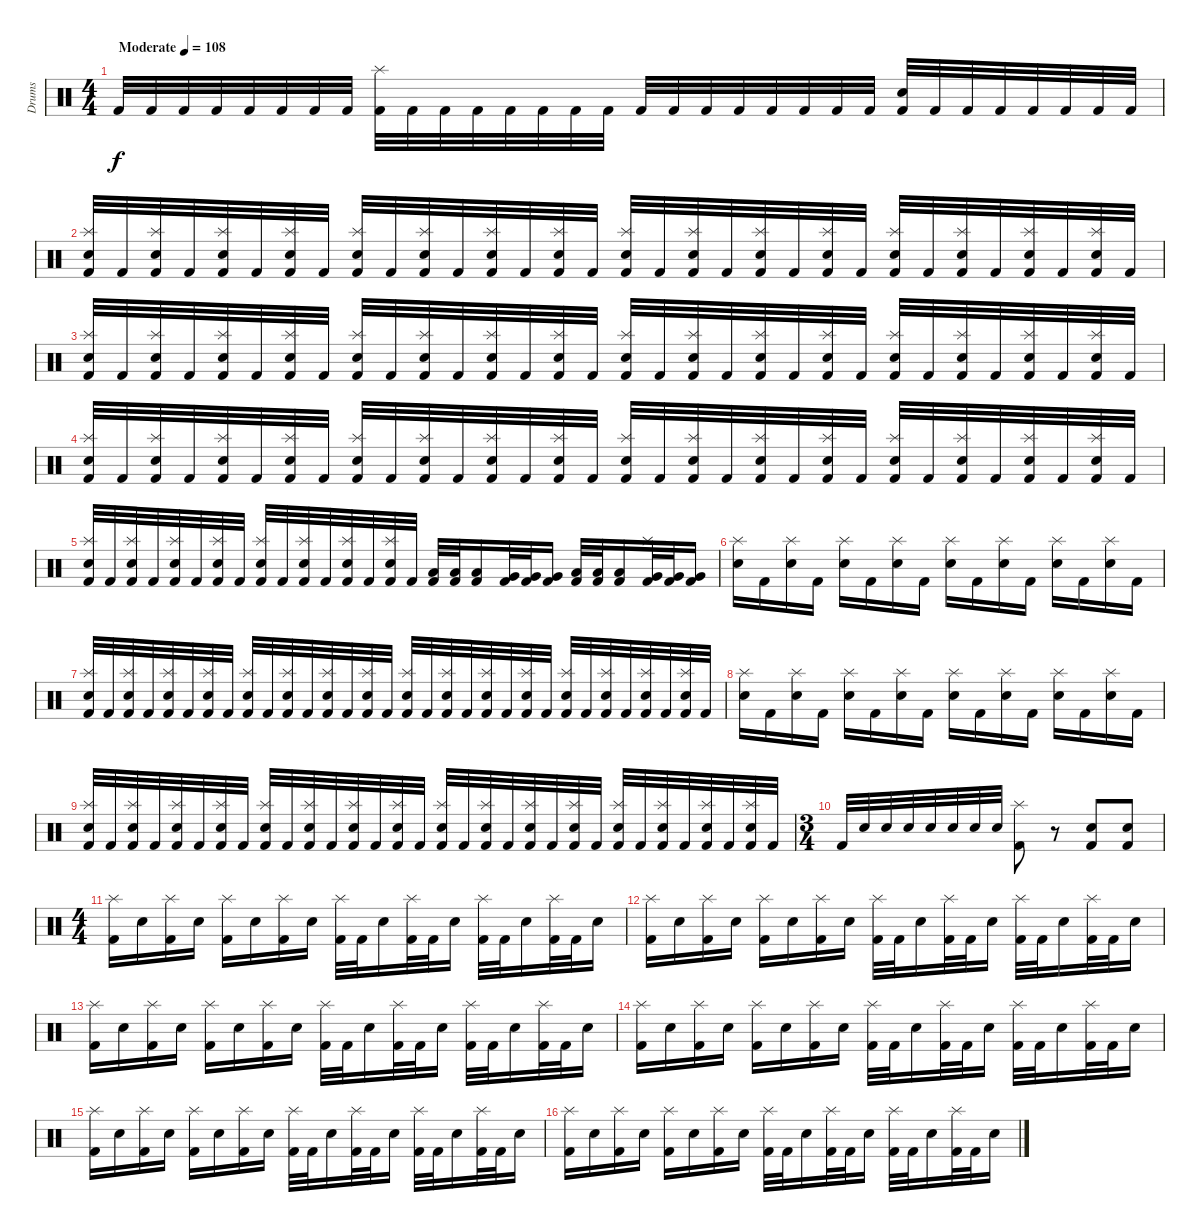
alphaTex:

\track ("Drums" "Drums") {instrument percussion}
\staff {score}
\articulation defaults
\ts (4 4)
\tempo (108 "Moderate")
\clef neutral
\ks c "Kick (hit) 2".32{dy f} "Kick (hit) 2".32 "Kick (hit) 2".32 "Kick (hit) 2".32 "Kick (hit) 2".32 "Kick (hit) 2".32 "Kick (hit) 2".32 "Kick (hit) 2".32
("Splash (hit)" "Kick (hit) 2").32 "Kick (hit) 2".32 "Kick (hit) 2".32 "Kick (hit) 2".32 "Kick (hit) 2".32 "Kick (hit) 2".32 "Kick (hit) 2".32 "Kick (hit) 2".32 "Kick (hit) 2".32 "Kick (hit) 2".32 "Kick (hit) 2".32 "Kick (hit) 2".32 "Kick (hit) 2".32 "Kick (hit) 2".32 "Kick (hit) 2".32 "Kick (hit) 2".32 ("Snare (hit) 2" "Kick (hit) 2").32 "Kick (hit) 2".32 "Kick (hit) 2".32 "Kick (hit) 2".32 "Kick (hit) 2".32 "Kick (hit) 2".32 "Kick (hit) 2".32 "Kick (hit) 2".32 |
("Splash (hit)" "Snare (hit) 2" "Kick (hit) 2").32 "Kick (hit) 2".32 ("Splash (hit)" "Snare (hit) 2" "Kick (hit) 2").32 "Kick (hit) 2".32 ("Splash (hit)" "Snare (hit) 2" "Kick (hit) 2").32 "Kick (hit) 2".32 ("Splash (hit)" "Snare (hit) 2" "Kick (hit) 2").32 "Kick (hit) 2".32 ("Splash (hit)" "Snare (hit) 2" "Kick (hit) 2").32 "Kick (hit) 2".32 ("Splash (hit)" "Snare (hit) 2" "Kick (hit) 2").32 "Kick (hit) 2".32 ("Splash (hit)" "Snare (hit) 2" "Kick (hit) 2").32 "Kick (hit) 2".32 ("Splash (hit)" "Snare (hit) 2" "Kick (hit) 2").32 "Kick (hit) 2".32 ("Splash (hit)" "Snare (hit) 2" "Kick (hit) 2").32 "Kick (hit) 2".32 ("Splash (hit)" "Snare (hit) 2" "Kick (hit) 2").32 "Kick (hit) 2".32 ("Splash (hit)" "Snare (hit) 2" "Kick (hit) 2").32 "Kick (hit) 2".32 ("Splash (hit)" "Snare (hit) 2" "Kick (hit) 2").32 "Kick (hit) 2".32 ("Splash (hit)" "Snare (hit) 2" "Kick (hit) 2").32 "Kick (hit) 2".32 ("Splash (hit)" "Snare (hit) 2" "Kick (hit) 2").32 "Kick (hit) 2".32 ("Splash (hit)" "Snare (hit) 2" "Kick (hit) 2").32 "Kick (hit) 2".32 ("Splash (hit)" "Snare (hit) 2" "Kick (hit) 2").32 "Kick (hit) 2".32 |
("Splash (hit)" "Snare (hit) 2" "Kick (hit) 2").32 "Kick (hit) 2".32 ("Splash (hit)" "Snare (hit) 2" "Kick (hit) 2").32 "Kick (hit) 2".32 ("Splash (hit)" "Snare (hit) 2" "Kick (hit) 2").32 "Kick (hit) 2".32 ("Splash (hit)" "Snare (hit) 2" "Kick (hit) 2").32 "Kick (hit) 2".32 ("Splash (hit)" "Snare (hit) 2" "Kick (hit) 2").32 "Kick (hit) 2".32 ("Splash (hit)" "Snare (hit) 2" "Kick (hit) 2").32 "Kick (hit) 2".32 ("Splash (hit)" "Snare (hit) 2" "Kick (hit) 2").32 "Kick (hit) 2".32 ("Splash (hit)" "Snare (hit) 2" "Kick (hit) 2").32 "Kick (hit) 2".32 ("Splash (hit)" "Snare (hit) 2" "Kick (hit) 2").32 "Kick (hit) 2".32 ("Splash (hit)" "Snare (hit) 2" "Kick (hit) 2").32 "Kick (hit) 2".32 ("Splash (hit)" "Snare (hit) 2" "Kick (hit) 2").32 "Kick (hit) 2".32 ("Splash (hit)" "Snare (hit) 2" "Kick (hit) 2").32 "Kick (hit) 2".32 ("Splash (hit)" "Snare (hit) 2" "Kick (hit) 2").32 "Kick (hit) 2".32 ("Splash (hit)" "Snare (hit) 2" "Kick (hit) 2").32 "Kick (hit) 2".32 ("Splash (hit)" "Snare (hit) 2" "Kick (hit) 2").32 "Kick (hit) 2".32 ("Splash (hit)" "Snare (hit) 2" "Kick (hit) 2").32 "Kick (hit) 2".32 |
("Splash (hit)" "Snare (hit) 2" "Kick (hit) 2").32 "Kick (hit) 2".32 ("Splash (hit)" "Snare (hit) 2" "Kick (hit) 2").32 "Kick (hit) 2".32 ("Splash (hit)" "Snare (hit) 2" "Kick (hit) 2").32 "Kick (hit) 2".32 ("Splash (hit)" "Snare (hit) 2" "Kick (hit) 2").32 "Kick (hit) 2".32 ("Splash (hit)" "Snare (hit) 2" "Kick (hit) 2").32 "Kick (hit) 2".32 ("Splash (hit)" "Snare (hit) 2" "Kick (hit) 2").32 "Kick (hit) 2".32 ("Splash (hit)" "Snare (hit) 2" "Kick (hit) 2").32 "Kick (hit) 2".32 ("Splash (hit)" "Snare (hit) 2" "Kick (hit) 2").32 "Kick (hit) 2".32 ("Splash (hit)" "Snare (hit) 2" "Kick (hit) 2").32 "Kick (hit) 2".32 ("Splash (hit)" "Snare (hit) 2" "Kick (hit) 2").32 "Kick (hit) 2".32 ("Splash (hit)" "Snare (hit) 2" "Kick (hit) 2").32 "Kick (hit) 2".32 ("Splash (hit)" "Snare (hit) 2" "Kick (hit) 2").32 "Kick (hit) 2".32 ("Splash (hit)" "Snare (hit) 2" "Kick (hit) 2").32 "Kick (hit) 2".32 ("Splash (hit)" "Snare (hit) 2" "Kick (hit) 2").32 "Kick (hit) 2".32 ("Splash (hit)" "Snare (hit) 2" "Kick (hit) 2").32 "Kick (hit) 2".32 ("Splash (hit)" "Snare (hit) 2" "Kick (hit) 2").32 "Kick (hit) 2".32 |
("Splash (hit)" "Snare (hit) 2" "Kick (hit) 2").32 "Kick (hit) 2".32 ("Splash (hit)" "Snare (hit) 2" "Kick (hit) 2").32 "Kick (hit) 2".32 ("Splash (hit)" "Snare (hit) 2" "Kick (hit) 2").32 "Kick (hit) 2".32 ("Splash (hit)" "Snare (hit) 2" "Kick (hit) 2").32 "Kick (hit) 2".32 ("Splash (hit)" "Snare (hit) 2" "Kick (hit) 2").32 "Kick (hit) 2".32 ("Splash (hit)" "Snare (hit) 2" "Kick (hit) 2").32 "Kick (hit) 2".32 ("Splash (hit)" "Snare (hit) 2" "Kick (hit) 2").32 "Kick (hit) 2".32 ("Splash (hit)" "Snare (hit) 2" "Kick (hit) 2").32 "Kick (hit) 2".32 ("Low Tom (hit)" "Kick (hit) 2").32 ("Low Tom (hit)" "Kick (hit) 2").32 ("Low Tom (hit)" "Kick (hit) 2").16 ("Very Low Tom (hit)" "Kick (hit) 2").32 ("Very Low Tom (hit)" "Kick (hit) 2").32 ("Very Low Tom (hit)" "Kick (hit) 2").16 ("Low Floor Tom (hit)" "Kick (hit) 2").32 ("Low Floor Tom (hit)" "Kick (hit) 2").32 ("Low Floor Tom (hit)" "Kick (hit) 2").16 ("Splash (hit)" "Very Low Tom (hit)" "Kick (hit) 2").32 ("Very Low Tom (hit)" "Kick (hit) 2").32 ("Very Low Tom (hit)" "Kick (hit) 2").16 |
("Splash (hit)" "Snare (hit) 2").16 "Kick (hit) 2".16 ("Splash (hit)" "Snare (hit) 2").16 "Kick (hit) 2".16 ("Splash (hit)" "Snare (hit) 2").16 "Kick (hit) 2".16 ("Splash (hit)" "Snare (hit) 2").16 "Kick (hit) 2".16 ("Splash (hit)" "Snare (hit) 2").16 "Kick (hit) 2".16 ("Splash (hit)" "Snare (hit) 2").16 "Kick (hit) 2".16 ("Splash (hit)" "Snare (hit) 2").16 "Kick (hit) 2".16 ("Splash (hit)" "Snare (hit) 2").16 "Kick (hit) 2".16 |
("Splash (hit)" "Snare (hit) 2" "Kick (hit) 2").32 "Kick (hit) 2".32 ("Splash (hit)" "Snare (hit) 2" "Kick (hit) 2").32 "Kick (hit) 2".32 ("Splash (hit)" "Snare (hit) 2" "Kick (hit) 2").32 "Kick (hit) 2".32 ("Splash (hit)" "Snare (hit) 2" "Kick (hit) 2").32 "Kick (hit) 2".32 ("Splash (hit)" "Snare (hit) 2" "Kick (hit) 2").32 "Kick (hit) 2".32 ("Splash (hit)" "Snare (hit) 2" "Kick (hit) 2").32 "Kick (hit) 2".32 ("Splash (hit)" "Snare (hit) 2" "Kick (hit) 2").32 "Kick (hit) 2".32 ("Splash (hit)" "Snare (hit) 2" "Kick (hit) 2").32 "Kick (hit) 2".32 ("Splash (hit)" "Snare (hit) 2" "Kick (hit) 2").32 "Kick (hit) 2".32 ("Splash (hit)" "Snare (hit) 2" "Kick (hit) 2").32 "Kick (hit) 2".32 ("Splash (hit)" "Snare (hit) 2" "Kick (hit) 2").32 "Kick (hit) 2".32 ("Splash (hit)" "Snare (hit) 2" "Kick (hit) 2").32 "Kick (hit) 2".32 ("Splash (hit)" "Snare (hit) 2" "Kick (hit) 2").32 "Kick (hit) 2".32 ("Splash (hit)" "Snare (hit) 2" "Kick (hit) 2").32 "Kick (hit) 2".32 ("Splash (hit)" "Snare (hit) 2" "Kick (hit) 2").32 "Kick (hit) 2".32 ("Splash (hit)" "Snare (hit) 2" "Kick (hit) 2").32 "Kick (hit) 2".32 |
("Splash (hit)" "Snare (hit) 2").16 "Kick (hit) 2".16 ("Splash (hit)" "Snare (hit) 2").16 "Kick (hit) 2".16 ("Splash (hit)" "Snare (hit) 2").16 "Kick (hit) 2".16 ("Splash (hit)" "Snare (hit) 2").16 "Kick (hit) 2".16 ("Splash (hit)" "Snare (hit) 2").16 "Kick (hit) 2".16 ("Splash (hit)" "Snare (hit) 2").16 "Kick (hit) 2".16 ("Splash (hit)" "Snare (hit) 2").16 "Kick (hit) 2".16 ("Splash (hit)" "Snare (hit) 2").16 "Kick (hit) 2".16 |
("Splash (hit)" "Snare (hit) 2" "Kick (hit) 2").32 "Kick (hit) 2".32 ("Splash (hit)" "Snare (hit) 2" "Kick (hit) 2").32 "Kick (hit) 2".32 ("Splash (hit)" "Snare (hit) 2" "Kick (hit) 2").32 "Kick (hit) 2".32 ("Splash (hit)" "Snare (hit) 2" "Kick (hit) 2").32 "Kick (hit) 2".32 ("Splash (hit)" "Snare (hit) 2" "Kick (hit) 2").32 "Kick (hit) 2".32 ("Splash (hit)" "Snare (hit) 2" "Kick (hit) 2").32 "Kick (hit) 2".32 ("Splash (hit)" "Snare (hit) 2" "Kick (hit) 2").32 "Kick (hit) 2".32 ("Splash (hit)" "Snare (hit) 2" "Kick (hit) 2").32 "Kick (hit) 2".32 ("Splash (hit)" "Snare (hit) 2" "Kick (hit) 2").32 "Kick (hit) 2".32 ("Splash (hit)" "Snare (hit) 2" "Kick (hit) 2").32 "Kick (hit) 2".32 ("Splash (hit)" "Snare (hit) 2" "Kick (hit) 2").32 "Kick (hit) 2".32 ("Splash (hit)" "Snare (hit) 2" "Kick (hit) 2").32 "Kick (hit) 2".32 ("Splash (hit)" "Snare (hit) 2" "Kick (hit) 2").32 "Kick (hit) 2".32 ("Splash (hit)" "Snare (hit) 2" "Kick (hit) 2").32 "Kick (hit) 2".32 ("Splash (hit)" "Snare (hit) 2" "Kick (hit) 2").32 "Kick (hit) 2".32 ("Splash (hit)" "Snare (hit) 2" "Kick (hit) 2").32 "Kick (hit) 2".32 |
\ts (3 4)
"Kick (hit) 2".32 "Snare (hit) 2".32 "Snare (hit) 2".32 "Snare (hit) 2".32 "Snare (hit) 2".32 "Snare (hit) 2".32 "Snare (hit) 2".32 "Snare (hit) 2".32 ("Splash (hit)" "Kick (hit) 2").8 r.8 ("Snare (hit) 2" "Kick (hit) 2").8 ("Snare (hit) 2" "Kick (hit) 2").8 |
\ts (4 4)
("Splash (hit)" "Kick (hit) 2").16 "Snare (hit) 2".16 ("Splash (hit)" "Kick (hit) 2").16 "Snare (hit) 2".16 ("Splash (hit)" "Kick (hit) 2").16 "Snare (hit) 2".16 ("Splash (hit)" "Kick (hit) 2").16 "Snare (hit) 2".16 ("Splash (hit)" "Kick (hit) 2").32 "Kick (hit) 2".32 "Snare (hit) 2".16 ("Splash (hit)" "Kick (hit) 2").32 "Kick (hit) 2".32 "Snare (hit) 2".16 ("Splash (hit)" "Kick (hit) 2").32 "Kick (hit) 2".32 "Snare (hit) 2".16 ("Splash (hit)" "Kick (hit) 2").32 "Kick (hit) 2".32 "Snare (hit) 2".16 |
("Splash (hit)" "Kick (hit) 2").16 "Snare (hit) 2".16 ("Splash (hit)" "Kick (hit) 2").16 "Snare (hit) 2".16 ("Splash (hit)" "Kick (hit) 2").16 "Snare (hit) 2".16 ("Splash (hit)" "Kick (hit) 2").16 "Snare (hit) 2".16 ("Splash (hit)" "Kick (hit) 2").32 "Kick (hit) 2".32 "Snare (hit) 2".16 ("Splash (hit)" "Kick (hit) 2").32 "Kick (hit) 2".32 "Snare (hit) 2".16 ("Splash (hit)" "Kick (hit) 2").32 "Kick (hit) 2".32 "Snare (hit) 2".16 ("Splash (hit)" "Kick (hit) 2").32 "Kick (hit) 2".32 "Snare (hit) 2".16 |
("Splash (hit)" "Kick (hit) 2").16 "Snare (hit) 2".16 ("Splash (hit)" "Kick (hit) 2").16 "Snare (hit) 2".16 ("Splash (hit)" "Kick (hit) 2").16 "Snare (hit) 2".16 ("Splash (hit)" "Kick (hit) 2").16 "Snare (hit) 2".16 ("Splash (hit)" "Kick (hit) 2").32 "Kick (hit) 2".32 "Snare (hit) 2".16 ("Splash (hit)" "Kick (hit) 2").32 "Kick (hit) 2".32 "Snare (hit) 2".16 ("Splash (hit)" "Kick (hit) 2").32 "Kick (hit) 2".32 "Snare (hit) 2".16 ("Splash (hit)" "Kick (hit) 2").32 "Kick (hit) 2".32 "Snare (hit) 2".16 |
("Splash (hit)" "Kick (hit) 2").16 "Snare (hit) 2".16 ("Splash (hit)" "Kick (hit) 2").16 "Snare (hit) 2".16 ("Splash (hit)" "Kick (hit) 2").16 "Snare (hit) 2".16 ("Splash (hit)" "Kick (hit) 2").16 "Snare (hit) 2".16 ("Splash (hit)" "Kick (hit) 2").32 "Kick (hit) 2".32 "Snare (hit) 2".16 ("Splash (hit)" "Kick (hit) 2").32 "Kick (hit) 2".32 "Snare (hit) 2".16 ("Splash (hit)" "Kick (hit) 2").32 "Kick (hit) 2".32 "Snare (hit) 2".16 ("Splash (hit)" "Kick (hit) 2").32 "Kick (hit) 2".32 "Snare (hit) 2".16 |
("Splash (hit)" "Kick (hit) 2").16 "Snare (hit) 2".16 ("Splash (hit)" "Kick (hit) 2").16 "Snare (hit) 2".16 ("Splash (hit)" "Kick (hit) 2").16 "Snare (hit) 2".16 ("Splash (hit)" "Kick (hit) 2").16 "Snare (hit) 2".16 ("Splash (hit)" "Kick (hit) 2").32 "Kick (hit) 2".32 "Snare (hit) 2".16 ("Splash (hit)" "Kick (hit) 2").32 "Kick (hit) 2".32 "Snare (hit) 2".16 ("Splash (hit)" "Kick (hit) 2").32 "Kick (hit) 2".32 "Snare (hit) 2".16 ("Splash (hit)" "Kick (hit) 2").32 "Kick (hit) 2".32 "Snare (hit) 2".16 |
("Splash (hit)" "Kick (hit) 2").16 "Snare (hit) 2".16 ("Splash (hit)" "Kick (hit) 2").16 "Snare (hit) 2".16 ("Splash (hit)" "Kick (hit) 2").16 "Snare (hit) 2".16 ("Splash (hit)" "Kick (hit) 2").16 "Snare (hit) 2".16 ("Splash (hit)" "Kick (hit) 2").32 "Kick (hit) 2".32 "Snare (hit) 2".16 ("Splash (hit)" "Kick (hit) 2").32 "Kick (hit) 2".32 "Snare (hit) 2".16 ("Splash (hit)" "Kick (hit) 2").32 "Kick (hit) 2".32 "Snare (hit) 2".16 ("Splash (hit)" "Kick (hit) 2").32 "Kick (hit) 2".32 "Snare (hit) 2".16
